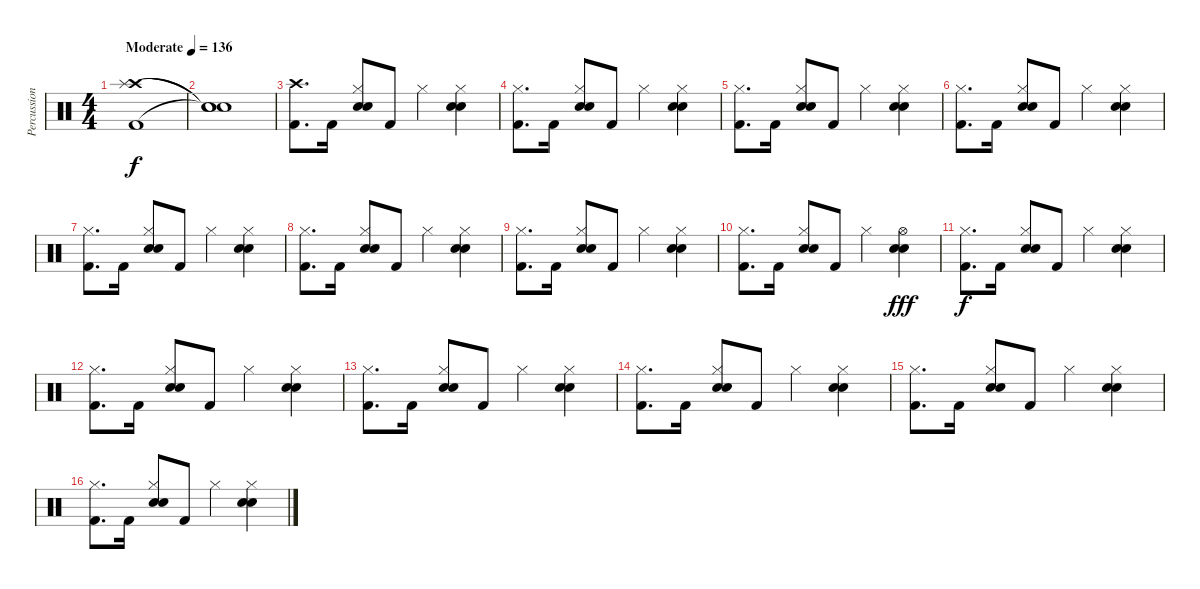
\track ("Percussion" "Percussion") {instrument percussion}
\staff {score}
\articulation defaults
\ts (4 4)
\tempo (136 "Moderate")
\clef neutral
\ks c
("Crash high (hit)" "Kick (hit) 2" "Splash (hit)").1{dy f} |
("Snare (hit)"{t} "Snare (hit)"{t} "Snare (hit)"{t}).1 |
("Crash high (hit)" "Kick (hit) 2").8{d} "Kick (hit) 2".16 ("Hi-Hat (closed)" "Electric Snare (hit)" "Snare (hit) 2").8 "Kick (hit) 2".8 "Hi-Hat (closed)".4 ("Hi-Hat (closed)" "Electric Snare (hit)" "Snare (hit) 2").4 |
("Hi-Hat (closed)" "Kick (hit) 2").8{d} "Kick (hit) 2".16 ("Hi-Hat (closed)" "Electric Snare (hit)" "Snare (hit) 2").8 "Kick (hit) 2".8 "Hi-Hat (closed)".4 ("Hi-Hat (closed)" "Electric Snare (hit)" "Snare (hit) 2").4 |
("Hi-Hat (closed)" "Kick (hit) 2").8{d} "Kick (hit) 2".16 ("Hi-Hat (closed)" "Electric Snare (hit)" "Snare (hit) 2").8 "Kick (hit) 2".8 "Hi-Hat (closed)".4 ("Hi-Hat (closed)" "Electric Snare (hit)" "Snare (hit) 2").4 |
("Hi-Hat (closed)" "Kick (hit) 2").8{d} "Kick (hit) 2".16 ("Hi-Hat (closed)" "Electric Snare (hit)" "Snare (hit) 2").8 "Kick (hit) 2".8 "Hi-Hat (closed)".4 ("Hi-Hat (closed)" "Electric Snare (hit)" "Snare (hit) 2").4 |
("Hi-Hat (closed)" "Kick (hit) 2").8{d} "Kick (hit) 2".16 ("Hi-Hat (closed)" "Electric Snare (hit)" "Snare (hit) 2").8 "Kick (hit) 2".8 "Hi-Hat (closed)".4 ("Hi-Hat (closed)" "Electric Snare (hit)" "Snare (hit) 2").4 |
("Hi-Hat (closed)" "Kick (hit) 2").8{d} "Kick (hit) 2".16 ("Hi-Hat (closed)" "Electric Snare (hit)" "Snare (hit) 2").8 "Kick (hit) 2".8 "Hi-Hat (closed)".4 ("Hi-Hat (closed)" "Electric Snare (hit)" "Snare (hit) 2").4 |
("Hi-Hat (closed)" "Kick (hit) 2").8{d} "Kick (hit) 2".16 ("Hi-Hat (closed)" "Electric Snare (hit)" "Snare (hit) 2").8 "Kick (hit) 2".8 "Hi-Hat (closed)".4 ("Hi-Hat (closed)" "Electric Snare (hit)" "Snare (hit) 2").4 |
("Hi-Hat (closed)" "Kick (hit) 2").8{d} "Kick (hit) 2".16 ("Hi-Hat (closed)" "Electric Snare (hit)" "Snare (hit) 2").8 "Kick (hit) 2".8 "Hi-Hat (closed)".4 ("Hi-Hat (open)" "Electric Snare (hit)" "Snare (hit) 2").4{dy fff} |
("Hi-Hat (closed)" "Kick (hit) 2").8{d dy f} "Kick (hit) 2".16 ("Hi-Hat (closed)" "Electric Snare (hit)" "Snare (hit) 2").8 "Kick (hit) 2".8 "Hi-Hat (closed)".4 ("Hi-Hat (closed)" "Electric Snare (hit)" "Snare (hit) 2").4 |
("Hi-Hat (closed)" "Kick (hit) 2").8{d} "Kick (hit) 2".16 ("Hi-Hat (closed)" "Electric Snare (hit)" "Snare (hit) 2").8 "Kick (hit) 2".8 "Hi-Hat (closed)".4 ("Hi-Hat (closed)" "Electric Snare (hit)" "Snare (hit) 2").4 |
("Hi-Hat (closed)" "Kick (hit) 2").8{d} "Kick (hit) 2".16 ("Hi-Hat (closed)" "Electric Snare (hit)" "Snare (hit) 2").8 "Kick (hit) 2".8 "Hi-Hat (closed)".4 ("Hi-Hat (closed)" "Electric Snare (hit)" "Snare (hit) 2").4 |
("Hi-Hat (closed)" "Kick (hit) 2").8{d} "Kick (hit) 2".16 ("Hi-Hat (closed)" "Electric Snare (hit)" "Snare (hit) 2").8 "Kick (hit) 2".8 "Hi-Hat (closed)".4 ("Hi-Hat (closed)" "Electric Snare (hit)" "Snare (hit) 2").4 |
("Hi-Hat (closed)" "Kick (hit) 2").8{d} "Kick (hit) 2".16 ("Hi-Hat (closed)" "Electric Snare (hit)" "Snare (hit) 2").8 "Kick (hit) 2".8 "Hi-Hat (closed)".4 ("Hi-Hat (closed)" "Electric Snare (hit)" "Snare (hit) 2").4 |
("Hi-Hat (closed)" "Kick (hit) 2").8{d} "Kick (hit) 2".16 ("Hi-Hat (closed)" "Electric Snare (hit)" "Snare (hit) 2").8 "Kick (hit) 2".8 "Hi-Hat (closed)".4 ("Hi-Hat (closed)" "Electric Snare (hit)" "Snare (hit) 2").4
